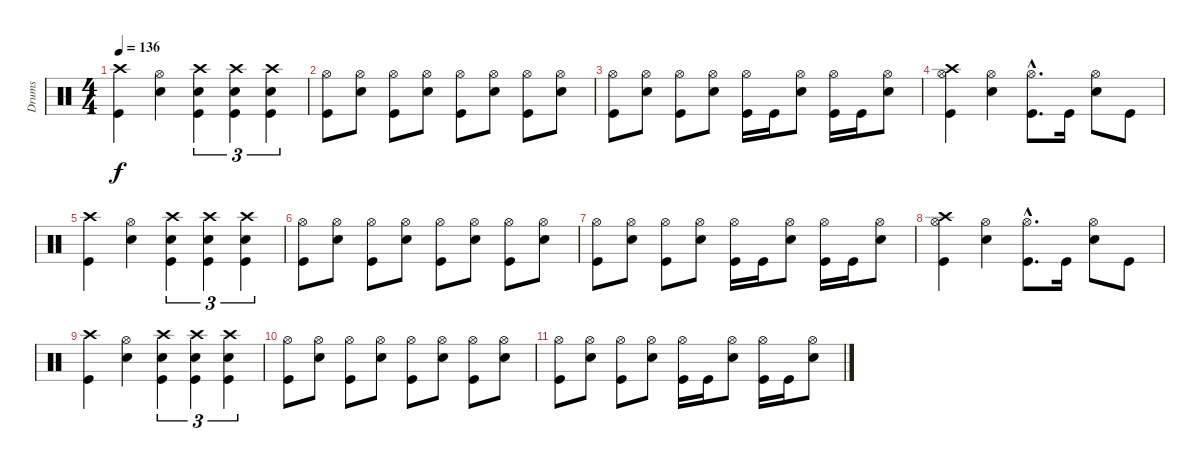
\track ("Drums" "Drums") {instrument percussion}
\staff {score}
\articulation defaults
\ts (4 4)
\tempo 136
\clef neutral
\ks c
("Crash high (hit)" "Kick (hit)").4{dy f} ("Hi-Hat (open)" "Electric Snare (hit)").4 ("Crash high (hit)" "Electric Snare (hit)" "Kick (hit)").4{tu (3 2)} ("Crash high (hit)" "Electric Snare (hit)" "Kick (hit)").4{tu (3 2)} ("Crash high (hit)" "Electric Snare (hit)" "Kick (hit)").4{tu (3 2)} |
("Hi-Hat (open)" "Kick (hit)").8 ("Hi-Hat (open)" "Electric Snare (hit)").8 ("Hi-Hat (open)" "Kick (hit)").8 ("Hi-Hat (open)" "Electric Snare (hit)").8 ("Hi-Hat (open)" "Kick (hit)").8 ("Hi-Hat (open)" "Electric Snare (hit)").8 ("Hi-Hat (open)" "Kick (hit)").8 ("Hi-Hat (open)" "Electric Snare (hit)").8 |
("Hi-Hat (open)" "Kick (hit)").8 ("Hi-Hat (open)" "Electric Snare (hit)").8 ("Hi-Hat (open)" "Kick (hit)").8 ("Hi-Hat (open)" "Electric Snare (hit)").8 ("Hi-Hat (open)" "Kick (hit)").16 "Kick (hit)".16 ("Hi-Hat (open)" "Electric Snare (hit)").8 ("Hi-Hat (open)" "Kick (hit)").16 "Kick (hit)".16 ("Hi-Hat (open)" "Electric Snare (hit)").8 |
("Crash high (hit)" "Hi-Hat (open)" "Kick (hit)").4 ("Hi-Hat (open)" "Electric Snare (hit)").4 ("Hi-Hat (open)"{hac} "Kick (hit)"{hac}).8{d} "Kick (hit)".16 ("Hi-Hat (open)" "Electric Snare (hit)").8 "Kick (hit)".8 |
("Crash high (hit)" "Kick (hit)").4 ("Hi-Hat (open)" "Electric Snare (hit)").4 ("Crash high (hit)" "Electric Snare (hit)" "Kick (hit)").4{tu (3 2)} ("Crash high (hit)" "Electric Snare (hit)" "Kick (hit)").4{tu (3 2)} ("Crash high (hit)" "Electric Snare (hit)" "Kick (hit)").4{tu (3 2)} |
("Hi-Hat (open)" "Kick (hit)").8 ("Hi-Hat (open)" "Electric Snare (hit)").8 ("Hi-Hat (open)" "Kick (hit)").8 ("Hi-Hat (open)" "Electric Snare (hit)").8 ("Hi-Hat (open)" "Kick (hit)").8 ("Hi-Hat (open)" "Electric Snare (hit)").8 ("Hi-Hat (open)" "Kick (hit)").8 ("Hi-Hat (open)" "Electric Snare (hit)").8 |
("Hi-Hat (open)" "Kick (hit)").8 ("Hi-Hat (open)" "Electric Snare (hit)").8 ("Hi-Hat (open)" "Kick (hit)").8 ("Hi-Hat (open)" "Electric Snare (hit)").8 ("Hi-Hat (open)" "Kick (hit)").16 "Kick (hit)".16 ("Hi-Hat (open)" "Electric Snare (hit)").8 ("Hi-Hat (open)" "Kick (hit)").16 "Kick (hit)".16 ("Hi-Hat (open)" "Electric Snare (hit)").8 |
("Crash high (hit)" "Hi-Hat (open)" "Kick (hit)").4 ("Hi-Hat (open)" "Electric Snare (hit)").4 ("Hi-Hat (open)"{hac} "Kick (hit)"{hac}).8{d} "Kick (hit)".16 ("Hi-Hat (open)" "Electric Snare (hit)").8 "Kick (hit)".8 |
("Crash high (hit)" "Kick (hit)").4 ("Hi-Hat (open)" "Electric Snare (hit)").4 ("Crash high (hit)" "Electric Snare (hit)" "Kick (hit)").4{tu (3 2)} ("Crash high (hit)" "Electric Snare (hit)" "Kick (hit)").4{tu (3 2)} ("Crash high (hit)" "Electric Snare (hit)" "Kick (hit)").4{tu (3 2)} |
("Hi-Hat (open)" "Kick (hit)").8 ("Hi-Hat (open)" "Electric Snare (hit)").8 ("Hi-Hat (open)" "Kick (hit)").8 ("Hi-Hat (open)" "Electric Snare (hit)").8 ("Hi-Hat (open)" "Kick (hit)").8 ("Hi-Hat (open)" "Electric Snare (hit)").8 ("Hi-Hat (open)" "Kick (hit)").8 ("Hi-Hat (open)" "Electric Snare (hit)").8 |
("Hi-Hat (open)" "Kick (hit)").8 ("Hi-Hat (open)" "Electric Snare (hit)").8 ("Hi-Hat (open)" "Kick (hit)").8 ("Hi-Hat (open)" "Electric Snare (hit)").8 ("Hi-Hat (open)" "Kick (hit)").16 "Kick (hit)".16 ("Hi-Hat (open)" "Electric Snare (hit)").8 ("Hi-Hat (open)" "Kick (hit)").16 "Kick (hit)".16 ("Hi-Hat (open)" "Electric Snare (hit)").8
